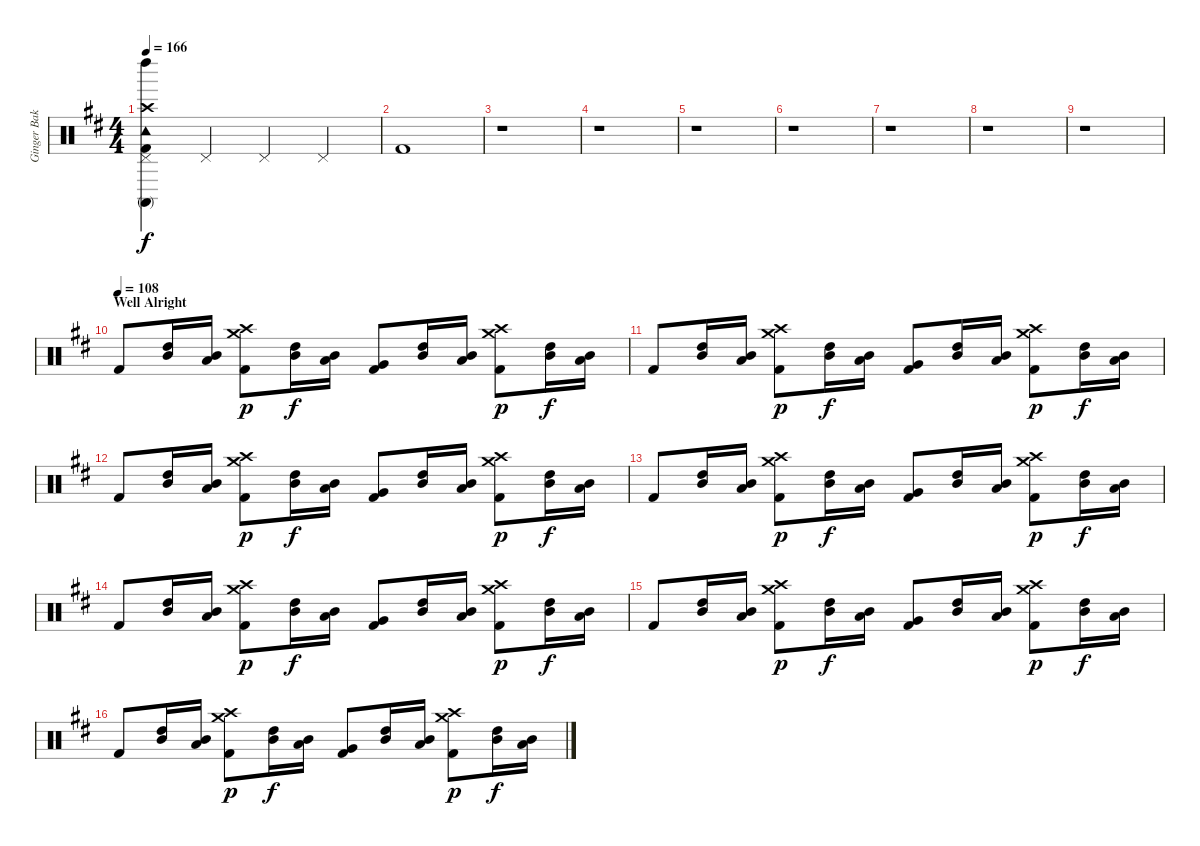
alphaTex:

\track ("Ginger Baker (Drums)" "Ginger Bak") {instrument percussion}
\staff {score}
\articulation defaults
\ts (4 4)
\tempo 166
\clef neutral
\ks d
("Tambourine (hit)" "Pedal Hi-Hat (hit)" "Left Maraca (hit)" "Conga high (mute)" "Kick (hit) 2" "Crash high (hit)").4{dy f} "Pedal Hi-Hat (hit)".4 "Pedal Hi-Hat (hit)".4 "Pedal Hi-Hat (hit)".4 |
"Kick (hit) 2".1 |
r.1 |
r.1 |
r.1 |
r.1 |
r.1 |
r.1 |
r.1 |
\section ("" "Well Alright")
\tempo (108)
"Kick (hit) 2".8 ("Mid Tom (hit)" "High Tom (hit)").16 ("Mid Tom (hit)" "Low Tom (hit)").16 ("Crash medium (hit)" "Crash high (hit)" "Kick (hit) 2").8{dy p} ("Mid Tom (hit)" "High Tom (hit)").16{dy f} ("Mid Tom (hit)" "Low Tom (hit)").16 ("Very Low Tom (hit)" "Kick (hit) 2").8 ("Mid Tom (hit)" "High Tom (hit)").16 ("Mid Tom (hit)" "Low Tom (hit)").16 ("Crash medium (hit)" "Crash high (hit)" "Kick (hit) 2").8{dy p} ("Mid Tom (hit)" "High Tom (hit)").16{dy f} ("Mid Tom (hit)" "Low Tom (hit)").16 |
"Kick (hit) 2".8 ("Mid Tom (hit)" "High Tom (hit)").16 ("Mid Tom (hit)" "Low Tom (hit)").16 ("Crash medium (hit)" "Crash high (hit)" "Kick (hit) 2").8{dy p} ("Mid Tom (hit)" "High Tom (hit)").16{dy f} ("Mid Tom (hit)" "Low Tom (hit)").16 ("Very Low Tom (hit)" "Kick (hit) 2").8 ("Mid Tom (hit)" "High Tom (hit)").16 ("Mid Tom (hit)" "Low Tom (hit)").16 ("Crash medium (hit)" "Crash high (hit)" "Kick (hit) 2").8{dy p} ("Mid Tom (hit)" "High Tom (hit)").16{dy f} ("Mid Tom (hit)" "Low Tom (hit)").16 |
"Kick (hit) 2".8 ("Mid Tom (hit)" "High Tom (hit)").16 ("Mid Tom (hit)" "Low Tom (hit)").16 ("Crash medium (hit)" "Crash high (hit)" "Kick (hit) 2").8{dy p} ("Mid Tom (hit)" "High Tom (hit)").16{dy f} ("Mid Tom (hit)" "Low Tom (hit)").16 ("Very Low Tom (hit)" "Kick (hit) 2").8 ("Mid Tom (hit)" "High Tom (hit)").16 ("Mid Tom (hit)" "Low Tom (hit)").16 ("Crash medium (hit)" "Crash high (hit)" "Kick (hit) 2").8{dy p} ("Mid Tom (hit)" "High Tom (hit)").16{dy f} ("Mid Tom (hit)" "Low Tom (hit)").16 |
"Kick (hit) 2".8 ("Mid Tom (hit)" "High Tom (hit)").16 ("Mid Tom (hit)" "Low Tom (hit)").16 ("Crash medium (hit)" "Crash high (hit)" "Kick (hit) 2").8{dy p} ("Mid Tom (hit)" "High Tom (hit)").16{dy f} ("Mid Tom (hit)" "Low Tom (hit)").16 ("Very Low Tom (hit)" "Kick (hit) 2").8 ("Mid Tom (hit)" "High Tom (hit)").16 ("Mid Tom (hit)" "Low Tom (hit)").16 ("Crash medium (hit)" "Crash high (hit)" "Kick (hit) 2").8{dy p} ("Mid Tom (hit)" "High Tom (hit)").16{dy f} ("Mid Tom (hit)" "Low Tom (hit)").16 |
"Kick (hit) 2".8 ("Mid Tom (hit)" "High Tom (hit)").16 ("Mid Tom (hit)" "Low Tom (hit)").16 ("Crash medium (hit)" "Crash high (hit)" "Kick (hit) 2").8{dy p} ("Mid Tom (hit)" "High Tom (hit)").16{dy f} ("Mid Tom (hit)" "Low Tom (hit)").16 ("Very Low Tom (hit)" "Kick (hit) 2").8 ("Mid Tom (hit)" "High Tom (hit)").16 ("Mid Tom (hit)" "Low Tom (hit)").16 ("Crash medium (hit)" "Crash high (hit)" "Kick (hit) 2").8{dy p} ("Mid Tom (hit)" "High Tom (hit)").16{dy f} ("Mid Tom (hit)" "Low Tom (hit)").16 |
"Kick (hit) 2".8 ("Mid Tom (hit)" "High Tom (hit)").16 ("Mid Tom (hit)" "Low Tom (hit)").16 ("Crash medium (hit)" "Crash high (hit)" "Kick (hit) 2").8{dy p} ("Mid Tom (hit)" "High Tom (hit)").16{dy f} ("Mid Tom (hit)" "Low Tom (hit)").16 ("Very Low Tom (hit)" "Kick (hit) 2").8 ("Mid Tom (hit)" "High Tom (hit)").16 ("Mid Tom (hit)" "Low Tom (hit)").16 ("Crash medium (hit)" "Crash high (hit)" "Kick (hit) 2").8{dy p} ("Mid Tom (hit)" "High Tom (hit)").16{dy f} ("Mid Tom (hit)" "Low Tom (hit)").16 |
"Kick (hit) 2".8 ("Mid Tom (hit)" "High Tom (hit)").16 ("Mid Tom (hit)" "Low Tom (hit)").16 ("Crash medium (hit)" "Crash high (hit)" "Kick (hit) 2").8{dy p} ("Mid Tom (hit)" "High Tom (hit)").16{dy f} ("Mid Tom (hit)" "Low Tom (hit)").16 ("Very Low Tom (hit)" "Kick (hit) 2").8 ("Mid Tom (hit)" "High Tom (hit)").16 ("Mid Tom (hit)" "Low Tom (hit)").16 ("Crash medium (hit)" "Crash high (hit)" "Kick (hit) 2").8{dy p} ("Mid Tom (hit)" "High Tom (hit)").16{dy f} ("Mid Tom (hit)" "Low Tom (hit)").16
